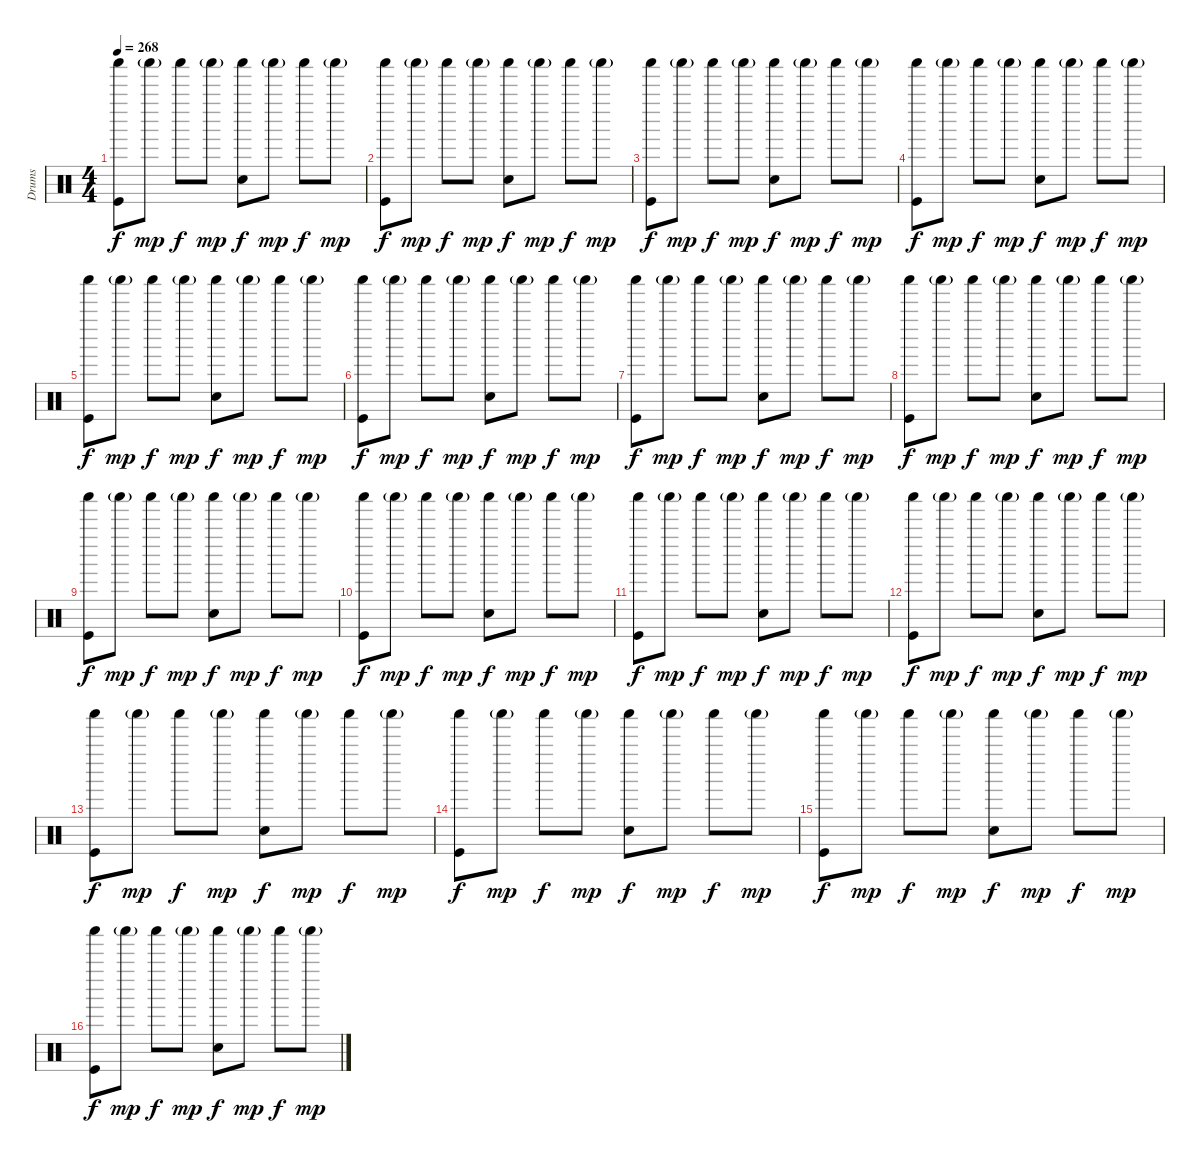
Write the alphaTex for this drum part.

\track ("Drums" "Drums") {instrument percussion}
\staff {score}
\articulation defaults
\ts (4 4)
\tempo 268
\clef neutral
\ks c
("Shaker (hit)" "Kick (hit)").8{dy f} "Shaker (hit)"{g}.8{dy mp} "Shaker (hit)".8{dy f} "Shaker (hit)"{g}.8{dy mp} ("Shaker (hit)" "Electric Snare (hit)").8{dy f} "Shaker (hit)"{g}.8{dy mp} "Shaker (hit)".8{dy f} "Shaker (hit)"{g}.8{dy mp} |
("Shaker (hit)" "Kick (hit)").8{dy f} "Shaker (hit)"{g}.8{dy mp} "Shaker (hit)".8{dy f} "Shaker (hit)"{g}.8{dy mp} ("Shaker (hit)" "Electric Snare (hit)").8{dy f} "Shaker (hit)"{g}.8{dy mp} "Shaker (hit)".8{dy f} "Shaker (hit)"{g}.8{dy mp} |
("Shaker (hit)" "Kick (hit)").8{dy f} "Shaker (hit)"{g}.8{dy mp} "Shaker (hit)".8{dy f} "Shaker (hit)"{g}.8{dy mp} ("Shaker (hit)" "Electric Snare (hit)").8{dy f} "Shaker (hit)"{g}.8{dy mp} "Shaker (hit)".8{dy f} "Shaker (hit)"{g}.8{dy mp} |
("Shaker (hit)" "Kick (hit)").8{dy f} "Shaker (hit)"{g}.8{dy mp} "Shaker (hit)".8{dy f} "Shaker (hit)"{g}.8{dy mp} ("Shaker (hit)" "Electric Snare (hit)").8{dy f} "Shaker (hit)"{g}.8{dy mp} "Shaker (hit)".8{dy f} "Shaker (hit)"{g}.8{dy mp} |
("Shaker (hit)" "Kick (hit)").8{dy f} "Shaker (hit)"{g}.8{dy mp} "Shaker (hit)".8{dy f} "Shaker (hit)"{g}.8{dy mp} ("Shaker (hit)" "Electric Snare (hit)").8{dy f} "Shaker (hit)"{g}.8{dy mp} "Shaker (hit)".8{dy f} "Shaker (hit)"{g}.8{dy mp} |
("Shaker (hit)" "Kick (hit)").8{dy f} "Shaker (hit)"{g}.8{dy mp} "Shaker (hit)".8{dy f} "Shaker (hit)"{g}.8{dy mp} ("Shaker (hit)" "Electric Snare (hit)").8{dy f} "Shaker (hit)"{g}.8{dy mp} "Shaker (hit)".8{dy f} "Shaker (hit)"{g}.8{dy mp} |
("Shaker (hit)" "Kick (hit)").8{dy f} "Shaker (hit)"{g}.8{dy mp} "Shaker (hit)".8{dy f} "Shaker (hit)"{g}.8{dy mp} ("Shaker (hit)" "Electric Snare (hit)").8{dy f} "Shaker (hit)"{g}.8{dy mp} "Shaker (hit)".8{dy f} "Shaker (hit)"{g}.8{dy mp} |
("Shaker (hit)" "Kick (hit)").8{dy f} "Shaker (hit)"{g}.8{dy mp} "Shaker (hit)".8{dy f} "Shaker (hit)"{g}.8{dy mp} ("Shaker (hit)" "Electric Snare (hit)").8{dy f} "Shaker (hit)"{g}.8{dy mp} "Shaker (hit)".8{dy f} "Shaker (hit)"{g}.8{dy mp} |
("Shaker (hit)" "Kick (hit)").8{dy f} "Shaker (hit)"{g}.8{dy mp} "Shaker (hit)".8{dy f} "Shaker (hit)"{g}.8{dy mp} ("Shaker (hit)" "Electric Snare (hit)").8{dy f} "Shaker (hit)"{g}.8{dy mp} "Shaker (hit)".8{dy f} "Shaker (hit)"{g}.8{dy mp} |
("Shaker (hit)" "Kick (hit)").8{dy f} "Shaker (hit)"{g}.8{dy mp} "Shaker (hit)".8{dy f} "Shaker (hit)"{g}.8{dy mp} ("Shaker (hit)" "Electric Snare (hit)").8{dy f} "Shaker (hit)"{g}.8{dy mp} "Shaker (hit)".8{dy f} "Shaker (hit)"{g}.8{dy mp} |
("Shaker (hit)" "Kick (hit)").8{dy f} "Shaker (hit)"{g}.8{dy mp} "Shaker (hit)".8{dy f} "Shaker (hit)"{g}.8{dy mp} ("Shaker (hit)" "Electric Snare (hit)").8{dy f} "Shaker (hit)"{g}.8{dy mp} "Shaker (hit)".8{dy f} "Shaker (hit)"{g}.8{dy mp} |
("Shaker (hit)" "Kick (hit)").8{dy f} "Shaker (hit)"{g}.8{dy mp} "Shaker (hit)".8{dy f} "Shaker (hit)"{g}.8{dy mp} ("Shaker (hit)" "Electric Snare (hit)").8{dy f} "Shaker (hit)"{g}.8{dy mp} "Shaker (hit)".8{dy f} "Shaker (hit)"{g}.8{dy mp} |
("Shaker (hit)" "Kick (hit)").8{dy f} "Shaker (hit)"{g}.8{dy mp} "Shaker (hit)".8{dy f} "Shaker (hit)"{g}.8{dy mp} ("Shaker (hit)" "Electric Snare (hit)").8{dy f} "Shaker (hit)"{g}.8{dy mp} "Shaker (hit)".8{dy f} "Shaker (hit)"{g}.8{dy mp} |
("Shaker (hit)" "Kick (hit)").8{dy f} "Shaker (hit)"{g}.8{dy mp} "Shaker (hit)".8{dy f} "Shaker (hit)"{g}.8{dy mp} ("Shaker (hit)" "Electric Snare (hit)").8{dy f} "Shaker (hit)"{g}.8{dy mp} "Shaker (hit)".8{dy f} "Shaker (hit)"{g}.8{dy mp} |
("Shaker (hit)" "Kick (hit)").8{dy f} "Shaker (hit)"{g}.8{dy mp} "Shaker (hit)".8{dy f} "Shaker (hit)"{g}.8{dy mp} ("Shaker (hit)" "Electric Snare (hit)").8{dy f} "Shaker (hit)"{g}.8{dy mp} "Shaker (hit)".8{dy f} "Shaker (hit)"{g}.8{dy mp} |
("Shaker (hit)" "Kick (hit)").8{dy f} "Shaker (hit)"{g}.8{dy mp} "Shaker (hit)".8{dy f} "Shaker (hit)"{g}.8{dy mp} ("Shaker (hit)" "Electric Snare (hit)").8{dy f} "Shaker (hit)"{g}.8{dy mp} "Shaker (hit)".8{dy f} "Shaker (hit)"{g}.8{dy mp}
